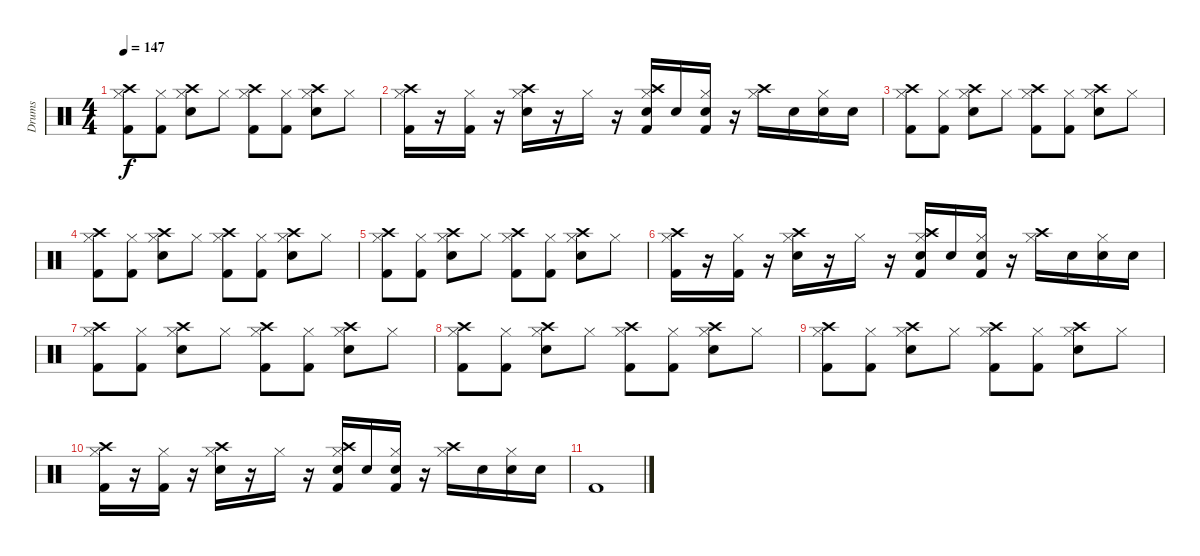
\track ("Drums" "Drums") {instrument percussion}
\staff {score}
\articulation defaults
\ts (4 4)
\tempo 147
\clef neutral
\ks c
("Kick (hit) 2" "Hi-Hat (closed)" "Crash high (hit)").8{dy f} ("Kick (hit) 2" "Hi-Hat (closed)").8 ("Electric Snare (hit)" "Hi-Hat (closed)" "Crash high (hit)").8 "Hi-Hat (closed)".8 ("Kick (hit) 2" "Hi-Hat (closed)" "Crash high (hit)").8 ("Kick (hit) 2" "Hi-Hat (closed)").8 ("Electric Snare (hit)" "Hi-Hat (closed)" "Crash high (hit)").8 "Hi-Hat (closed)".8 |
("Kick (hit) 2" "Hi-Hat (closed)" "Crash high (hit)").16 r.16 ("Kick (hit) 2" "Hi-Hat (closed)").16 r.16 ("Electric Snare (hit)" "Hi-Hat (closed)" "Crash high (hit)").16 r.16 "Hi-Hat (closed)".16 r.16 ("Kick (hit) 2" "Electric Snare (hit)" "Hi-Hat (closed)" "Crash high (hit)").16 "Electric Snare (hit)".16 ("Kick (hit) 2" "Electric Snare (hit)" "Hi-Hat (closed)").16 r.16 ("Hi-Hat (closed)" "Crash high (hit)").16 "Electric Snare (hit)".16 ("Electric Snare (hit)" "Hi-Hat (closed)").16 "Electric Snare (hit)".16 |
("Kick (hit) 2" "Hi-Hat (closed)" "Crash high (hit)").8 ("Kick (hit) 2" "Hi-Hat (closed)").8 ("Electric Snare (hit)" "Hi-Hat (closed)" "Crash high (hit)").8 "Hi-Hat (closed)".8 ("Kick (hit) 2" "Hi-Hat (closed)" "Crash high (hit)").8 ("Kick (hit) 2" "Hi-Hat (closed)").8 ("Electric Snare (hit)" "Hi-Hat (closed)" "Crash high (hit)").8 "Hi-Hat (closed)".8 |
("Kick (hit) 2" "Hi-Hat (closed)" "Crash high (hit)").8 ("Kick (hit) 2" "Hi-Hat (closed)").8 ("Electric Snare (hit)" "Hi-Hat (closed)" "Crash high (hit)").8 "Hi-Hat (closed)".8 ("Kick (hit) 2" "Hi-Hat (closed)" "Crash high (hit)").8 ("Kick (hit) 2" "Hi-Hat (closed)").8 ("Electric Snare (hit)" "Hi-Hat (closed)" "Crash high (hit)").8 "Hi-Hat (closed)".8 |
("Kick (hit) 2" "Hi-Hat (closed)" "Crash high (hit)").8 ("Kick (hit) 2" "Hi-Hat (closed)").8 ("Electric Snare (hit)" "Hi-Hat (closed)" "Crash high (hit)").8 "Hi-Hat (closed)".8 ("Kick (hit) 2" "Hi-Hat (closed)" "Crash high (hit)").8 ("Kick (hit) 2" "Hi-Hat (closed)").8 ("Electric Snare (hit)" "Hi-Hat (closed)" "Crash high (hit)").8 "Hi-Hat (closed)".8 |
("Kick (hit) 2" "Hi-Hat (closed)" "Crash high (hit)").16 r.16 ("Kick (hit) 2" "Hi-Hat (closed)").16 r.16 ("Electric Snare (hit)" "Hi-Hat (closed)" "Crash high (hit)").16 r.16 "Hi-Hat (closed)".16 r.16 ("Kick (hit) 2" "Electric Snare (hit)" "Hi-Hat (closed)" "Crash high (hit)").16 "Electric Snare (hit)".16 ("Kick (hit) 2" "Electric Snare (hit)" "Hi-Hat (closed)").16 r.16 ("Hi-Hat (closed)" "Crash high (hit)").16 "Electric Snare (hit)".16 ("Electric Snare (hit)" "Hi-Hat (closed)").16 "Electric Snare (hit)".16 |
("Kick (hit) 2" "Hi-Hat (closed)" "Crash high (hit)").8 ("Kick (hit) 2" "Hi-Hat (closed)").8 ("Electric Snare (hit)" "Hi-Hat (closed)" "Crash high (hit)").8 "Hi-Hat (closed)".8 ("Kick (hit) 2" "Hi-Hat (closed)" "Crash high (hit)").8 ("Kick (hit) 2" "Hi-Hat (closed)").8 ("Electric Snare (hit)" "Hi-Hat (closed)" "Crash high (hit)").8 "Hi-Hat (closed)".8 |
("Kick (hit) 2" "Hi-Hat (closed)" "Crash high (hit)").8 ("Kick (hit) 2" "Hi-Hat (closed)").8 ("Electric Snare (hit)" "Hi-Hat (closed)" "Crash high (hit)").8 "Hi-Hat (closed)".8 ("Kick (hit) 2" "Hi-Hat (closed)" "Crash high (hit)").8 ("Kick (hit) 2" "Hi-Hat (closed)").8 ("Electric Snare (hit)" "Hi-Hat (closed)" "Crash high (hit)").8 "Hi-Hat (closed)".8 |
("Kick (hit) 2" "Hi-Hat (closed)" "Crash high (hit)").8 ("Kick (hit) 2" "Hi-Hat (closed)").8 ("Electric Snare (hit)" "Hi-Hat (closed)" "Crash high (hit)").8 "Hi-Hat (closed)".8 ("Kick (hit) 2" "Hi-Hat (closed)" "Crash high (hit)").8 ("Kick (hit) 2" "Hi-Hat (closed)").8 ("Electric Snare (hit)" "Hi-Hat (closed)" "Crash high (hit)").8 "Hi-Hat (closed)".8 |
("Kick (hit) 2" "Hi-Hat (closed)" "Crash high (hit)").16 r.16 ("Kick (hit) 2" "Hi-Hat (closed)").16 r.16 ("Electric Snare (hit)" "Hi-Hat (closed)" "Crash high (hit)").16 r.16 "Hi-Hat (closed)".16 r.16 ("Kick (hit) 2" "Electric Snare (hit)" "Hi-Hat (closed)" "Crash high (hit)").16 "Electric Snare (hit)".16 ("Kick (hit) 2" "Electric Snare (hit)" "Hi-Hat (closed)").16 r.16 ("Hi-Hat (closed)" "Crash high (hit)").16 "Electric Snare (hit)".16 ("Electric Snare (hit)" "Hi-Hat (closed)").16 "Electric Snare (hit)".16 |
"Kick (hit) 2".1
